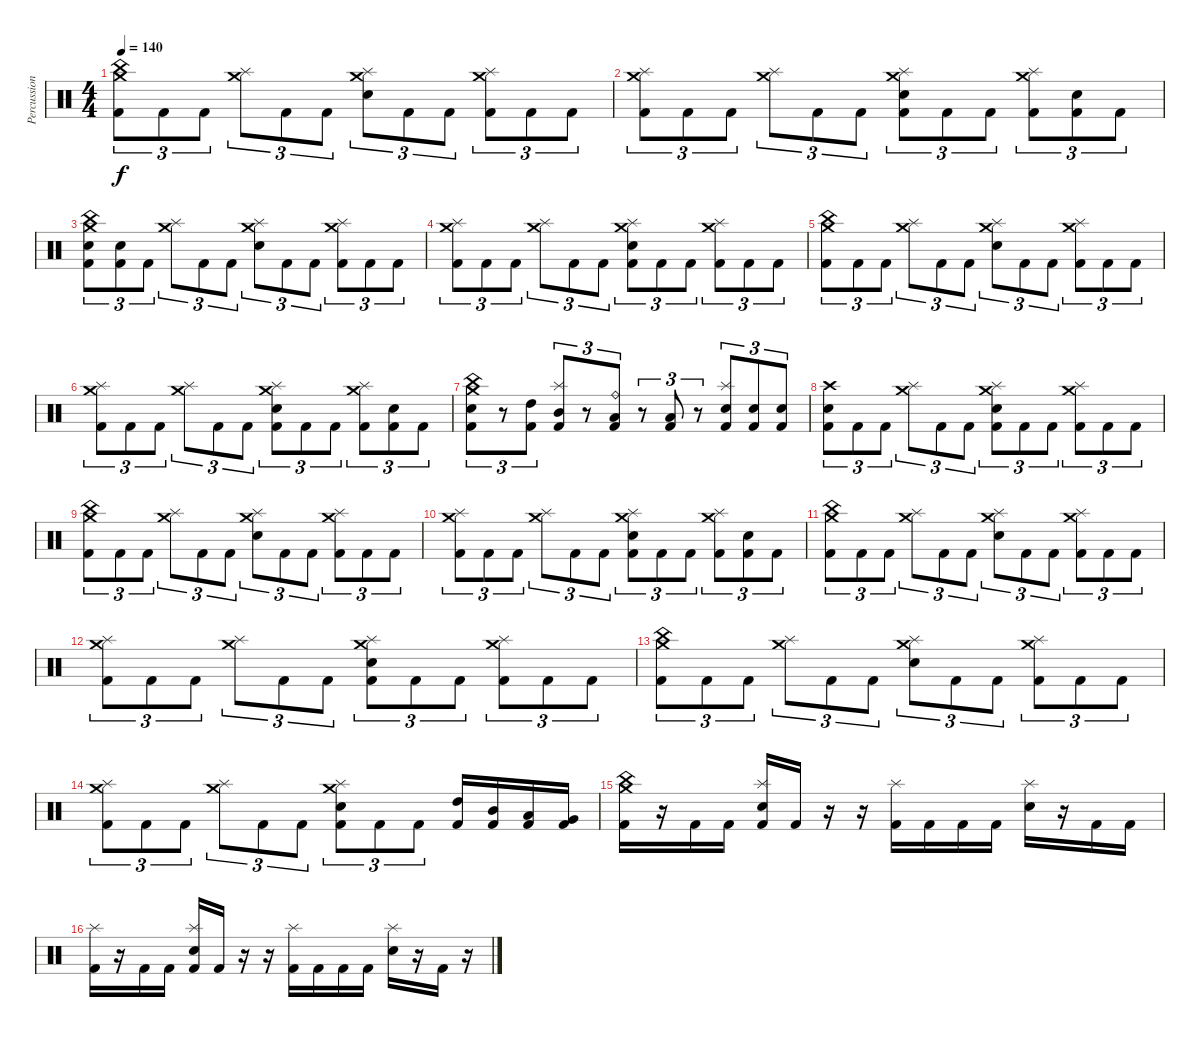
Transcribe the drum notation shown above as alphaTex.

\track ("Percussion" "Percussion") {instrument percussion}
\staff {score}
\articulation defaults
\ts (4 4)
\tempo 140
\clef neutral
\ks c
("China (hit)" "Crash medium (hit)" "Kick (hit) 2").8{tu (3 2) dy f} "Kick (hit) 2".8{tu (3 2)} "Kick (hit) 2".8{tu (3 2)} ("Splash (hit)" "Crash medium (hit)").8{tu (3 2)} "Kick (hit) 2".8{tu (3 2)} "Kick (hit) 2".8{tu (3 2)} ("Splash (hit)" "Crash medium (hit)" "Snare (hit) 2").8{tu (3 2)} "Kick (hit) 2".8{tu (3 2)} "Kick (hit) 2".8{tu (3 2)} ("Splash (hit)" "Crash medium (hit)" "Kick (hit) 2").8{tu (3 2)} "Kick (hit) 2".8{tu (3 2)} "Kick (hit) 2".8{tu (3 2)} |
("Splash (hit)" "Crash medium (hit)" "Kick (hit) 2").8{tu (3 2)} "Kick (hit) 2".8{tu (3 2)} "Kick (hit) 2".8{tu (3 2)} ("Splash (hit)" "Crash medium (hit)").8{tu (3 2)} "Kick (hit) 2".8{tu (3 2)} "Kick (hit) 2".8{tu (3 2)} ("Splash (hit)" "Crash medium (hit)" "Snare (hit) 2" "Kick (hit) 2").8{tu (3 2)} "Kick (hit) 2".8{tu (3 2)} "Kick (hit) 2".8{tu (3 2)} ("Splash (hit)" "Crash medium (hit)" "Kick (hit) 2").8{tu (3 2)} ("Snare (hit) 2" "Kick (hit) 2").8{tu (3 2)} "Kick (hit) 2".8{tu (3 2)} |
("China (hit)" "Crash medium (hit)" "Snare (hit) 2" "Kick (hit) 2").8{tu (3 2)} ("Snare (hit) 2" "Kick (hit) 2").8{tu (3 2)} "Kick (hit) 2".8{tu (3 2)} ("Splash (hit)" "Crash medium (hit)").8{tu (3 2)} "Kick (hit) 2".8{tu (3 2)} "Kick (hit) 2".8{tu (3 2)} ("Splash (hit)" "Crash medium (hit)" "Snare (hit) 2").8{tu (3 2)} "Kick (hit) 2".8{tu (3 2)} "Kick (hit) 2".8{tu (3 2)} ("Splash (hit)" "Crash medium (hit)" "Kick (hit) 2").8{tu (3 2)} "Kick (hit) 2".8{tu (3 2)} "Kick (hit) 2".8{tu (3 2)} |
("Splash (hit)" "Crash medium (hit)" "Kick (hit) 2").8{tu (3 2)} "Kick (hit) 2".8{tu (3 2)} "Kick (hit) 2".8{tu (3 2)} ("Splash (hit)" "Crash medium (hit)").8{tu (3 2)} "Kick (hit) 2".8{tu (3 2)} "Kick (hit) 2".8{tu (3 2)} ("Splash (hit)" "Crash medium (hit)" "Snare (hit) 2" "Kick (hit) 2").8{tu (3 2)} "Kick (hit) 2".8{tu (3 2)} "Kick (hit) 2".8{tu (3 2)} ("Splash (hit)" "Crash medium (hit)" "Kick (hit) 2").8{tu (3 2)} "Kick (hit) 2".8{tu (3 2)} "Kick (hit) 2".8{tu (3 2)} |
("China (hit)" "Crash medium (hit)" "Kick (hit) 2").8{tu (3 2)} "Kick (hit) 2".8{tu (3 2)} "Kick (hit) 2".8{tu (3 2)} ("Splash (hit)" "Crash medium (hit)").8{tu (3 2)} "Kick (hit) 2".8{tu (3 2)} "Kick (hit) 2".8{tu (3 2)} ("Splash (hit)" "Crash medium (hit)" "Snare (hit) 2").8{tu (3 2)} "Kick (hit) 2".8{tu (3 2)} "Kick (hit) 2".8{tu (3 2)} ("Splash (hit)" "Crash medium (hit)" "Kick (hit) 2").8{tu (3 2)} "Kick (hit) 2".8{tu (3 2)} "Kick (hit) 2".8{tu (3 2)} |
("Splash (hit)" "Crash medium (hit)" "Kick (hit) 2").8{tu (3 2)} "Kick (hit) 2".8{tu (3 2)} "Kick (hit) 2".8{tu (3 2)} ("Splash (hit)" "Crash medium (hit)").8{tu (3 2)} "Kick (hit) 2".8{tu (3 2)} "Kick (hit) 2".8{tu (3 2)} ("Splash (hit)" "Crash medium (hit)" "Snare (hit) 2" "Kick (hit) 2").8{tu (3 2)} "Kick (hit) 2".8{tu (3 2)} "Kick (hit) 2".8{tu (3 2)} ("Splash (hit)" "Crash medium (hit)" "Kick (hit) 2").8{tu (3 2)} ("Snare (hit) 2" "Kick (hit) 2").8{tu (3 2)} "Kick (hit) 2".8{tu (3 2)} |
("China (hit)" "Crash medium (hit)" "Snare (hit) 2" "Kick (hit) 2").8{tu (3 2)} r.8{tu (3 2)} ("High Tom (hit)" "Kick (hit) 2").8{tu (3 2)} ("Splash (hit)" "Mid Tom (hit)" "Kick (hit) 2").8{tu (3 2)} r.8{tu (3 2)} ("Ride (bell)" "Low Tom (hit)" "Kick (hit) 2").8{tu (3 2)} r.8{tu (3 2)} ("Low Floor Tom (hit)" "Kick (hit) 2").8{tu (3 2)} r.8{tu (3 2)} ("Splash (hit)" "Snare (hit) 2" "Kick (hit) 2").8{tu (3 2)} ("Electric Snare (hit)" "Kick (hit) 2").8{tu (3 2)} ("Snare (hit) 2" "Kick (hit) 2").8{tu (3 2)} |
("Crash high (hit)" "Snare (hit) 2" "Kick (hit) 2").8{tu (3 2)} "Kick (hit) 2".8{tu (3 2)} "Kick (hit) 2".8{tu (3 2)} ("Splash (hit)" "Crash medium (hit)").8{tu (3 2)} "Kick (hit) 2".8{tu (3 2)} "Kick (hit) 2".8{tu (3 2)} ("Splash (hit)" "Crash medium (hit)" "Snare (hit) 2" "Kick (hit) 2").8{tu (3 2)} "Kick (hit) 2".8{tu (3 2)} "Kick (hit) 2".8{tu (3 2)} ("Splash (hit)" "Crash medium (hit)" "Kick (hit) 2").8{tu (3 2)} "Kick (hit) 2".8{tu (3 2)} "Kick (hit) 2".8{tu (3 2)} |
("China (hit)" "Crash medium (hit)" "Kick (hit) 2").8{tu (3 2)} "Kick (hit) 2".8{tu (3 2)} "Kick (hit) 2".8{tu (3 2)} ("Splash (hit)" "Crash medium (hit)").8{tu (3 2)} "Kick (hit) 2".8{tu (3 2)} "Kick (hit) 2".8{tu (3 2)} ("Splash (hit)" "Crash medium (hit)" "Snare (hit) 2").8{tu (3 2)} "Kick (hit) 2".8{tu (3 2)} "Kick (hit) 2".8{tu (3 2)} ("Splash (hit)" "Crash medium (hit)" "Kick (hit) 2").8{tu (3 2)} "Kick (hit) 2".8{tu (3 2)} "Kick (hit) 2".8{tu (3 2)} |
("Splash (hit)" "Crash medium (hit)" "Kick (hit) 2").8{tu (3 2)} "Kick (hit) 2".8{tu (3 2)} "Kick (hit) 2".8{tu (3 2)} ("Splash (hit)" "Crash medium (hit)").8{tu (3 2)} "Kick (hit) 2".8{tu (3 2)} "Kick (hit) 2".8{tu (3 2)} ("Splash (hit)" "Crash medium (hit)" "Snare (hit) 2" "Kick (hit) 2").8{tu (3 2)} "Kick (hit) 2".8{tu (3 2)} "Kick (hit) 2".8{tu (3 2)} ("Splash (hit)" "Crash medium (hit)" "Kick (hit) 2").8{tu (3 2)} ("Snare (hit) 2" "Kick (hit) 2").8{tu (3 2)} "Kick (hit) 2".8{tu (3 2)} |
("China (hit)" "Crash medium (hit)" "Kick (hit) 2").8{tu (3 2)} "Kick (hit) 2".8{tu (3 2)} "Kick (hit) 2".8{tu (3 2)} ("Splash (hit)" "Crash medium (hit)").8{tu (3 2)} "Kick (hit) 2".8{tu (3 2)} "Kick (hit) 2".8{tu (3 2)} ("Splash (hit)" "Crash medium (hit)" "Snare (hit) 2").8{tu (3 2)} "Kick (hit) 2".8{tu (3 2)} "Kick (hit) 2".8{tu (3 2)} ("Splash (hit)" "Crash medium (hit)" "Kick (hit) 2").8{tu (3 2)} "Kick (hit) 2".8{tu (3 2)} "Kick (hit) 2".8{tu (3 2)} |
("Splash (hit)" "Crash medium (hit)" "Kick (hit) 2").8{tu (3 2)} "Kick (hit) 2".8{tu (3 2)} "Kick (hit) 2".8{tu (3 2)} ("Splash (hit)" "Crash medium (hit)").8{tu (3 2)} "Kick (hit) 2".8{tu (3 2)} "Kick (hit) 2".8{tu (3 2)} ("Splash (hit)" "Crash medium (hit)" "Snare (hit) 2" "Kick (hit) 2").8{tu (3 2)} "Kick (hit) 2".8{tu (3 2)} "Kick (hit) 2".8{tu (3 2)} ("Splash (hit)" "Crash medium (hit)" "Kick (hit) 2").8{tu (3 2)} "Kick (hit) 2".8{tu (3 2)} "Kick (hit) 2".8{tu (3 2)} |
("China (hit)" "Crash medium (hit)" "Kick (hit) 2").8{tu (3 2)} "Kick (hit) 2".8{tu (3 2)} "Kick (hit) 2".8{tu (3 2)} ("Splash (hit)" "Crash medium (hit)").8{tu (3 2)} "Kick (hit) 2".8{tu (3 2)} "Kick (hit) 2".8{tu (3 2)} ("Splash (hit)" "Crash medium (hit)" "Snare (hit) 2").8{tu (3 2)} "Kick (hit) 2".8{tu (3 2)} "Kick (hit) 2".8{tu (3 2)} ("Splash (hit)" "Crash medium (hit)" "Kick (hit) 2").8{tu (3 2)} "Kick (hit) 2".8{tu (3 2)} "Kick (hit) 2".8{tu (3 2)} |
("Splash (hit)" "Crash medium (hit)" "Kick (hit) 2").8{tu (3 2)} "Kick (hit) 2".8{tu (3 2)} "Kick (hit) 2".8{tu (3 2)} ("Splash (hit)" "Crash medium (hit)").8{tu (3 2)} "Kick (hit) 2".8{tu (3 2)} "Kick (hit) 2".8{tu (3 2)} ("Splash (hit)" "Crash medium (hit)" "Snare (hit) 2" "Kick (hit) 2").8{tu (3 2)} "Kick (hit) 2".8{tu (3 2)} "Kick (hit) 2".8{tu (3 2)} ("High Tom (hit)" "Kick (hit) 2").16 ("Mid Tom (hit)" "Kick (hit) 2").16 ("Low Tom (hit)" "Kick (hit) 2").16 ("Very Low Tom (hit)" "Kick (hit) 2").16 |
("China (hit)" "Crash medium (hit)" "Kick (hit) 2").16 r.16 "Kick (hit) 2".16 "Kick (hit) 2".16 ("Splash (hit)" "Snare (hit) 2" "Kick (hit) 2").16 "Kick (hit) 2".16 r.16 r.16 ("Splash (hit)" "Kick (hit) 2").16 "Kick (hit) 2".16 "Kick (hit) 2".16 "Kick (hit) 2".16 ("Splash (hit)" "Snare (hit) 2").16 r.16 "Kick (hit) 2".16 "Kick (hit) 2".16 |
("Splash (hit)" "Kick (hit) 2").16 r.16 "Kick (hit) 2".16 "Kick (hit) 2".16 ("Splash (hit)" "Snare (hit) 2" "Kick (hit) 2").16 "Kick (hit) 2".16 r.16 r.16 ("Splash (hit)" "Kick (hit) 2").16 "Kick (hit) 2".16 "Kick (hit) 2".16 "Kick (hit) 2".16 ("Splash (hit)" "Snare (hit) 2").16 r.16 "Kick (hit) 2".16 r.16
